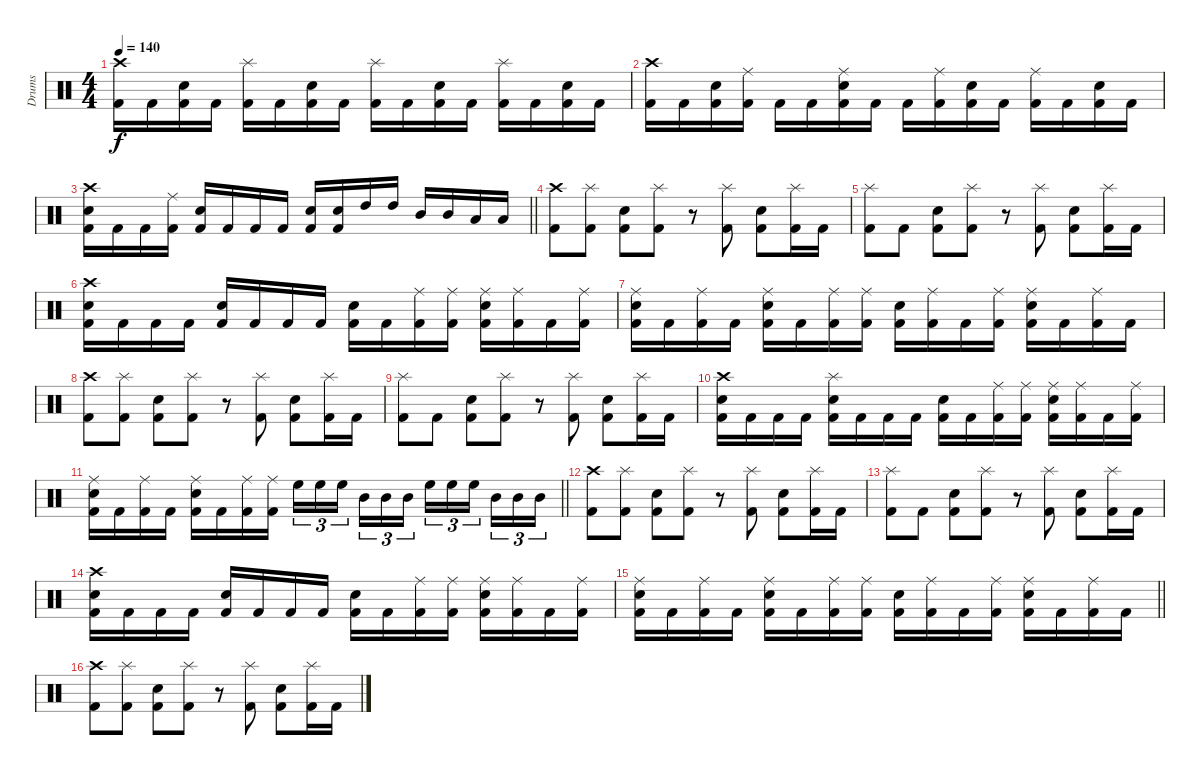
\track ("Drums" "Drums") {instrument percussion}
\staff {score}
\articulation defaults
\ts (4 4)
\tempo 140
\clef neutral
\ks c
("Crash high (hit)" "Kick (hit) 2").16{dy f} "Kick (hit) 2".16 ("Snare (hit) 2" "Kick (hit) 2").16 "Kick (hit) 2".16 ("Splash (hit)" "Kick (hit) 2").16 "Kick (hit) 2".16 ("Snare (hit) 2" "Kick (hit) 2").16 "Kick (hit) 2".16 ("Splash (hit)" "Kick (hit) 2").16 "Kick (hit) 2".16 ("Snare (hit) 2" "Kick (hit) 2").16 "Kick (hit) 2".16 ("Splash (hit)" "Kick (hit) 2").16 "Kick (hit) 2".16 ("Snare (hit) 2" "Kick (hit) 2").16 "Kick (hit) 2".16 |
("Crash high (hit)" "Kick (hit) 2").16 "Kick (hit) 2".16 ("Snare (hit) 2" "Kick (hit) 2").16 ("Ride (middle)" "Kick (hit) 2").16 "Kick (hit) 2".16 "Kick (hit) 2".16 ("Ride (middle)" "Snare (hit) 2" "Kick (hit) 2").16 "Kick (hit) 2".16 "Kick (hit) 2".16 ("Ride (middle)" "Kick (hit) 2").16 ("Snare (hit) 2" "Kick (hit) 2").16 "Kick (hit) 2".16 ("Ride (middle)" "Kick (hit) 2").16 "Kick (hit) 2".16 ("Snare (hit) 2" "Kick (hit) 2").16 "Kick (hit) 2".16 |
\barLineRight lightlight
("Snare (hit) 2" "Crash high (hit)" "Kick (hit) 2").16 "Kick (hit) 2".16 "Kick (hit) 2".16 ("Ride (middle)" "Kick (hit) 2").16 ("Snare (hit) 2" "Kick (hit) 2").16 "Kick (hit) 2".16 "Kick (hit) 2".16 "Kick (hit) 2".16 ("Snare (hit) 2" "Kick (hit) 2").16 ("Snare (hit) 2" "Kick (hit) 2").16 "High Tom (hit)".16 "High Tom (hit)".16 "Mid Tom (hit)".16 "Mid Tom (hit)".16 "Low Tom (hit)".16 "Low Tom (hit)".16 |
("Crash high (hit)" "Kick (hit) 2").8 ("Splash (hit)" "Kick (hit) 2").8 ("Snare (hit) 2" "Kick (hit) 2").8 ("Splash (hit)" "Kick (hit) 2").8 r.8 ("Splash (hit)" "Kick (hit) 2").8 ("Snare (hit) 2" "Kick (hit) 2").8 ("Splash (hit)" "Kick (hit) 2").16 "Kick (hit) 2".16 |
("Splash (hit)" "Kick (hit) 2").8 "Kick (hit) 2".8 ("Snare (hit) 2" "Kick (hit) 2").8 ("Splash (hit)" "Kick (hit) 2").8 r.8 ("Splash (hit)" "Kick (hit) 2").8 ("Snare (hit) 2" "Kick (hit) 2").8 ("Splash (hit)" "Kick (hit) 2").16 "Kick (hit) 2".16 |
("Crash high (hit)" "Snare (hit) 2" "Kick (hit) 2").16 "Kick (hit) 2".16 "Kick (hit) 2".16 "Kick (hit) 2".16 ("Snare (hit) 2" "Kick (hit) 2").16 "Kick (hit) 2".16 "Kick (hit) 2".16 "Kick (hit) 2".16 ("Snare (hit) 2" "Kick (hit) 2").16 "Kick (hit) 2".16 ("Ride (middle)" "Kick (hit) 2").16 ("Ride (middle)" "Kick (hit) 2").16 ("Ride (middle)" "Snare (hit) 2" "Kick (hit) 2").16 ("Ride (middle)" "Kick (hit) 2").16 "Kick (hit) 2".16 ("Ride (middle)" "Kick (hit) 2").16 |
("Ride (middle)" "Snare (hit) 2" "Kick (hit) 2").16 "Kick (hit) 2".16 ("Ride (middle)" "Kick (hit) 2").16 "Kick (hit) 2".16 ("Ride (middle)" "Snare (hit) 2" "Kick (hit) 2").16 "Kick (hit) 2".16 ("Ride (middle)" "Kick (hit) 2").16 ("Ride (middle)" "Kick (hit) 2").16 ("Snare (hit) 2" "Kick (hit) 2").16 ("Ride (middle)" "Kick (hit) 2").16 "Kick (hit) 2".16 ("Ride (middle)" "Kick (hit) 2").16 ("Ride (middle)" "Snare (hit) 2" "Kick (hit) 2").16 "Kick (hit) 2".16 ("Ride (middle)" "Kick (hit) 2").16 "Kick (hit) 2".16 |
("Crash high (hit)" "Kick (hit) 2").8 ("Splash (hit)" "Kick (hit) 2").8 ("Snare (hit) 2" "Kick (hit) 2").8 ("Splash (hit)" "Kick (hit) 2").8 r.8 ("Splash (hit)" "Kick (hit) 2").8 ("Snare (hit) 2" "Kick (hit) 2").8 ("Splash (hit)" "Kick (hit) 2").16 "Kick (hit) 2".16 |
("Splash (hit)" "Kick (hit) 2").8 "Kick (hit) 2".8 ("Snare (hit) 2" "Kick (hit) 2").8 ("Splash (hit)" "Kick (hit) 2").8 r.8 ("Splash (hit)" "Kick (hit) 2").8 ("Snare (hit) 2" "Kick (hit) 2").8 ("Splash (hit)" "Kick (hit) 2").16 "Kick (hit) 2".16 |
("Crash high (hit)" "Snare (hit) 2" "Kick (hit) 2").16 "Kick (hit) 2".16 "Kick (hit) 2".16 "Kick (hit) 2".16 ("Splash (hit)" "Snare (hit) 2" "Kick (hit) 2").16 "Kick (hit) 2".16 "Kick (hit) 2".16 "Kick (hit) 2".16 ("Snare (hit) 2" "Kick (hit) 2").16 "Kick (hit) 2".16 ("Ride (middle)" "Kick (hit) 2").16 ("Ride (middle)" "Kick (hit) 2").16 ("Ride (middle)" "Snare (hit) 2" "Kick (hit) 2").16 ("Ride (middle)" "Kick (hit) 2").16 "Kick (hit) 2".16 ("Ride (middle)" "Kick (hit) 2").16 |
\barLineRight lightlight
("Ride (middle)" "Snare (hit) 2" "Kick (hit) 2").16 "Kick (hit) 2".16 ("Ride (middle)" "Kick (hit) 2").16 "Kick (hit) 2".16 ("Ride (middle)" "Snare (hit) 2" "Kick (hit) 2").16 "Kick (hit) 2".16 ("Ride (middle)" "Kick (hit) 2").16 ("Ride (middle)" "Kick (hit) 2").16 "High Floor Tom (hit)".16{tu (3 2)} "High Floor Tom (hit)".16{tu (3 2)} "High Floor Tom (hit)".16{tu (3 2)} "Mid Tom (hit)".16{tu (3 2)} "Mid Tom (hit)".16{tu (3 2)} "Mid Tom (hit)".16{tu (3 2)} "High Floor Tom (hit)".16{tu (3 2)} "High Floor Tom (hit)".16{tu (3 2)} "High Floor Tom (hit)".16{tu (3 2)} "Mid Tom (hit)".16{tu (3 2)} "Mid Tom (hit)".16{tu (3 2)} "Mid Tom (hit)".16{tu (3 2)} |
("Crash high (hit)" "Kick (hit) 2").8 ("Splash (hit)" "Kick (hit) 2").8 ("Snare (hit) 2" "Kick (hit) 2").8 ("Splash (hit)" "Kick (hit) 2").8 r.8 ("Splash (hit)" "Kick (hit) 2").8 ("Snare (hit) 2" "Kick (hit) 2").8 ("Splash (hit)" "Kick (hit) 2").16 "Kick (hit) 2".16 |
("Splash (hit)" "Kick (hit) 2").8 "Kick (hit) 2".8 ("Snare (hit) 2" "Kick (hit) 2").8 ("Splash (hit)" "Kick (hit) 2").8 r.8 ("Splash (hit)" "Kick (hit) 2").8 ("Snare (hit) 2" "Kick (hit) 2").8 ("Splash (hit)" "Kick (hit) 2").16 "Kick (hit) 2".16 |
("Crash high (hit)" "Snare (hit) 2" "Kick (hit) 2").16 "Kick (hit) 2".16 "Kick (hit) 2".16 "Kick (hit) 2".16 ("Snare (hit) 2" "Kick (hit) 2").16 "Kick (hit) 2".16 "Kick (hit) 2".16 "Kick (hit) 2".16 ("Snare (hit) 2" "Kick (hit) 2").16 "Kick (hit) 2".16 ("Ride (middle)" "Kick (hit) 2").16 ("Ride (middle)" "Kick (hit) 2").16 ("Ride (middle)" "Snare (hit) 2" "Kick (hit) 2").16 ("Ride (middle)" "Kick (hit) 2").16 "Kick (hit) 2".16 ("Ride (middle)" "Kick (hit) 2").16 |
\barLineRight lightlight
("Ride (middle)" "Snare (hit) 2" "Kick (hit) 2").16 "Kick (hit) 2".16 ("Ride (middle)" "Kick (hit) 2").16 "Kick (hit) 2".16 ("Ride (middle)" "Snare (hit) 2" "Kick (hit) 2").16 "Kick (hit) 2".16 ("Ride (middle)" "Kick (hit) 2").16 ("Ride (middle)" "Kick (hit) 2").16 ("Snare (hit) 2" "Kick (hit) 2").16 ("Ride (middle)" "Kick (hit) 2").16 "Kick (hit) 2".16 ("Ride (middle)" "Kick (hit) 2").16 ("Ride (middle)" "Snare (hit) 2" "Kick (hit) 2").16 "Kick (hit) 2".16 ("Ride (middle)" "Kick (hit) 2").16 "Kick (hit) 2".16 |
("Crash high (hit)" "Kick (hit) 2").8 ("Splash (hit)" "Kick (hit) 2").8 ("Snare (hit) 2" "Kick (hit) 2").8 ("Splash (hit)" "Kick (hit) 2").8 r.8 ("Splash (hit)" "Kick (hit) 2").8 ("Snare (hit) 2" "Kick (hit) 2").8 ("Splash (hit)" "Kick (hit) 2").16 "Kick (hit) 2".16
